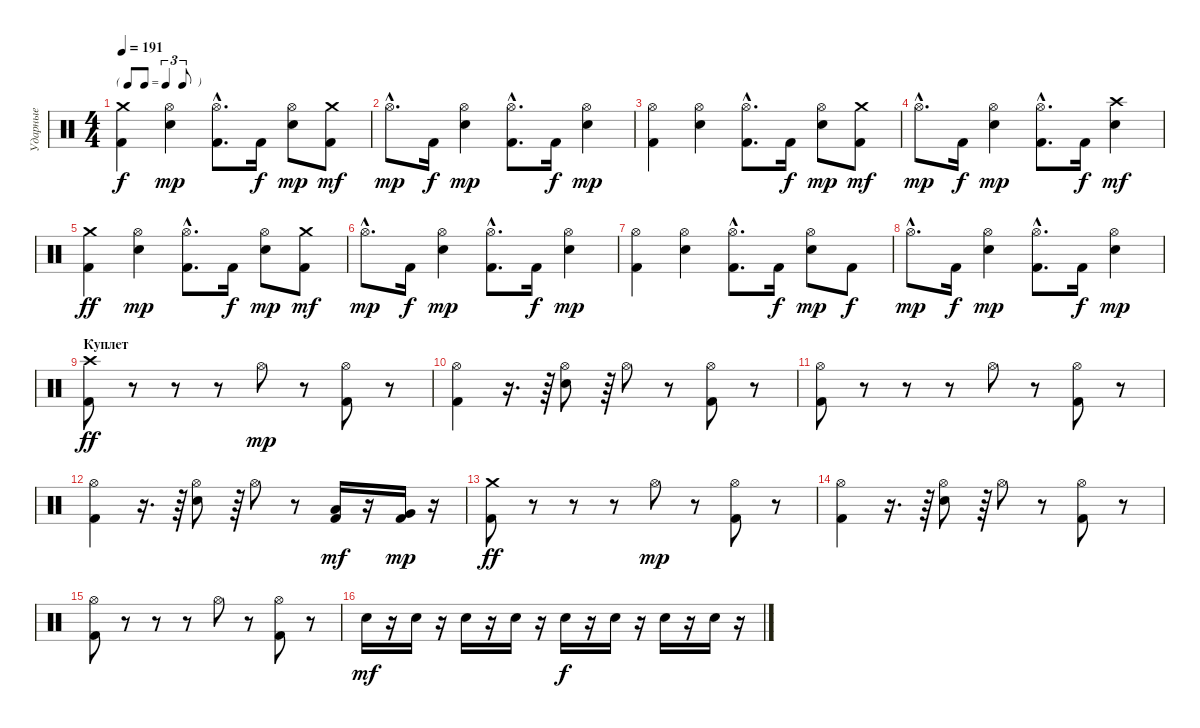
\track ("Ударные" "Ударные") {instrument percussion}
\staff {score}
\articulation defaults
\ts (4 4)
\tf triplet8th
\tempo 191
\clef neutral
\ks c
("Crash medium (hit)" "Kick (hit) 2").4{dy f} ("Snare (hit) 2" "Hi-Hat (open)").4{dy mp} ("Kick (hit) 2"{hac} "Hi-Hat (open)"{hac}).8{d} "Kick (hit) 2".16{dy f} ("Snare (hit) 2" "Hi-Hat (open)").8{dy mp} ("Crash medium (hit)" "Kick (hit) 2").8{dy mf} |
"Hi-Hat (open)"{hac}.8{d dy mp} "Kick (hit) 2".16{dy f} ("Snare (hit) 2" "Hi-Hat (open)").4{dy mp} ("Kick (hit) 2"{hac} "Hi-Hat (open)"{hac}).8{d} "Kick (hit) 2".16{dy f} ("Snare (hit) 2" "Hi-Hat (open)").4{dy mp} |
("Kick (hit) 2" "Hi-Hat (open)").4 ("Snare (hit) 2" "Hi-Hat (open)").4 ("Kick (hit) 2"{hac} "Hi-Hat (open)"{hac}).8{d} "Kick (hit) 2".16{dy f} ("Snare (hit) 2" "Hi-Hat (open)").8{dy mp} ("Crash medium (hit)" "Kick (hit) 2").8{dy mf} |
"Hi-Hat (open)"{hac}.8{d dy mp} "Kick (hit) 2".16{dy f} ("Snare (hit) 2" "Hi-Hat (open)").4{dy mp} ("Kick (hit) 2"{hac} "Hi-Hat (open)"{hac}).8{d} "Kick (hit) 2".16{dy f} ("Crash high (hit)" "Snare (hit) 2").4{dy mf} |
("Crash medium (hit)" "Kick (hit) 2").4{dy ff} ("Snare (hit) 2" "Hi-Hat (open)").4{dy mp} ("Kick (hit) 2"{hac} "Hi-Hat (open)"{hac}).8{d} "Kick (hit) 2".16{dy f} ("Snare (hit) 2" "Hi-Hat (open)").8{dy mp} ("Crash medium (hit)" "Kick (hit) 2").8{dy mf} |
"Hi-Hat (open)"{hac}.8{d dy mp} "Kick (hit) 2".16{dy f} ("Snare (hit) 2" "Hi-Hat (open)").4{dy mp} ("Kick (hit) 2"{hac} "Hi-Hat (open)"{hac}).8{d} "Kick (hit) 2".16{dy f} ("Snare (hit) 2" "Hi-Hat (open)").4{dy mp} |
("Kick (hit) 2" "Hi-Hat (open)").4 ("Snare (hit) 2" "Hi-Hat (open)").4 ("Kick (hit) 2"{hac} "Hi-Hat (open)"{hac}).8{d} "Kick (hit) 2".16{dy f} ("Snare (hit) 2" "Hi-Hat (open)").8{dy mp} "Kick (hit) 2".8{dy f} |
"Hi-Hat (open)"{hac}.8{d dy mp} "Kick (hit) 2".16{dy f} ("Snare (hit) 2" "Hi-Hat (open)").4{dy mp} ("Kick (hit) 2"{hac} "Hi-Hat (open)"{hac}).8{d} "Kick (hit) 2".16{dy f} ("Snare (hit) 2" "Hi-Hat (open)").4{dy mp} |
\section ("" "Куплет")
("Crash high (hit)" "Kick (hit) 2").8{dy ff} r.8 r.8 r.8 "Hi-Hat (open)".8{dy mp} r.8 ("Hi-Hat (open)" "Kick (hit) 2").8 r.8 |
("Hi-Hat (open)" "Kick (hit) 2").4 r.16{d} r.64 ("Snare (hit) 2" "Hi-Hat (open)").8 r.64 "Hi-Hat (open)".8 r.8 ("Hi-Hat (open)" "Kick (hit) 2").8 r.8 |
("Hi-Hat (open)" "Kick (hit) 2").8 r.8 r.8 r.8 "Hi-Hat (open)".8 r.8 ("Hi-Hat (open)" "Kick (hit) 2").8 r.8 |
("Hi-Hat (open)" "Kick (hit) 2").4 r.16{d} r.64 ("Snare (hit) 2" "Hi-Hat (open)").8 r.64 "Hi-Hat (open)".8 r.8 ("Low Tom (hit)" "Kick (hit) 2").16{dy mf} r.16 ("Very Low Tom (hit)" "Kick (hit) 2").16{dy mp} r.16 |
("Crash medium (hit)" "Kick (hit) 2").8{dy ff} r.8 r.8 r.8 "Hi-Hat (open)".8{dy mp} r.8 ("Hi-Hat (open)" "Kick (hit) 2").8 r.8 |
("Hi-Hat (open)" "Kick (hit) 2").4 r.16{d} r.64 ("Snare (hit) 2" "Hi-Hat (open)").8 r.64 "Hi-Hat (open)".8 r.8 ("Hi-Hat (open)" "Kick (hit) 2").8 r.8 |
("Hi-Hat (open)" "Kick (hit) 2").8 r.8 r.8 r.8 "Hi-Hat (open)".8 r.8 ("Hi-Hat (open)" "Kick (hit) 2").8 r.8 |
"Snare (hit) 2".16{dy mf} r.16 "Snare (hit) 2".16 r.16 "Snare (hit) 2".16 r.16 "Snare (hit) 2".16 r.16 "Snare (hit) 2".16{dy f} r.16 "Snare (hit) 2".16 r.16 "Snare (hit) 2".16 r.16 "Snare (hit) 2".16 r.16
